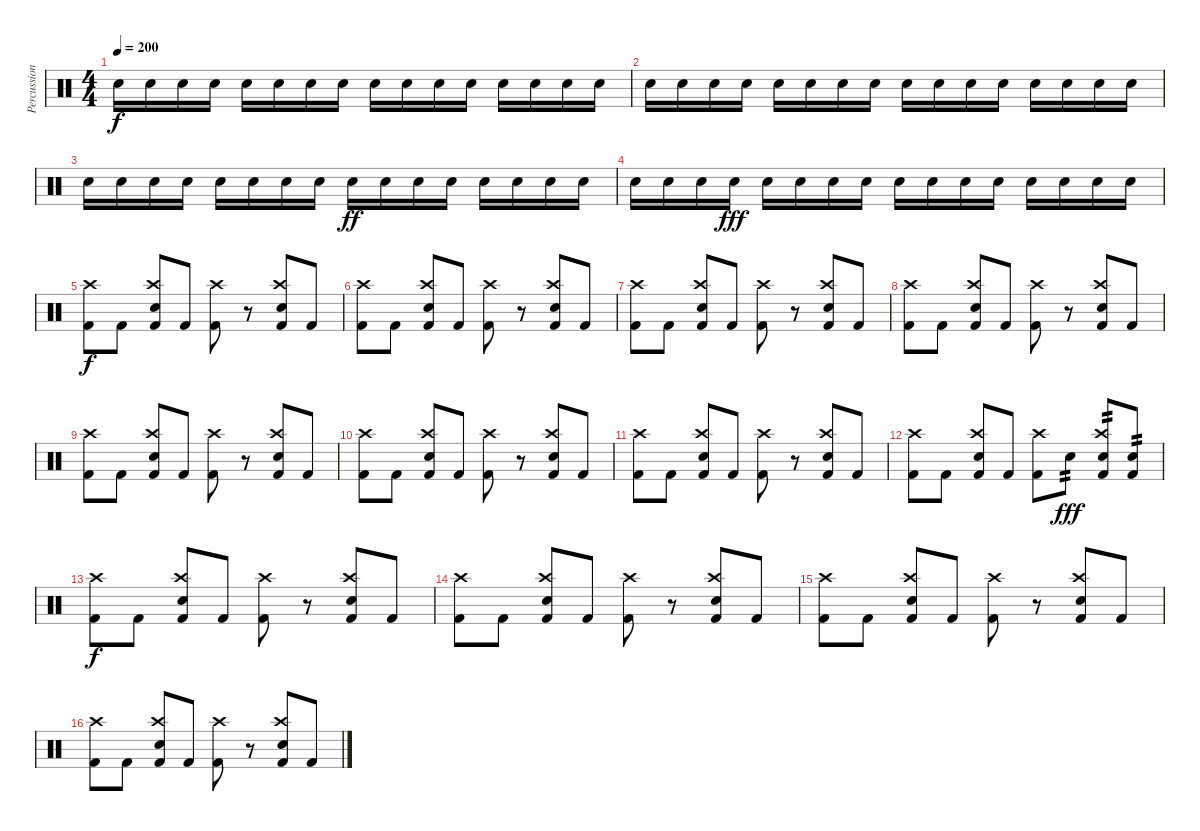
\track ("Percussion" "Percussion") {instrument percussion}
\staff {score}
\articulation defaults
\ts (4 4)
\tempo 200
\clef neutral
\ks c "Electric Snare (hit)".16{dy f} "Electric Snare (hit)".16 "Electric Snare (hit)".16 "Electric Snare (hit)".16 "Electric Snare (hit)".16 "Electric Snare (hit)".16 "Electric Snare (hit)".16 "Electric Snare (hit)".16 "Electric Snare (hit)".16 "Electric Snare (hit)".16 "Electric Snare (hit)".16 "Electric Snare (hit)".16 "Electric Snare (hit)".16 "Electric Snare (hit)".16 "Electric Snare (hit)".16 "Electric Snare (hit)".16
|
"Electric Snare (hit)".16 "Electric Snare (hit)".16 "Electric Snare (hit)".16 "Electric Snare (hit)".16 "Electric Snare (hit)".16 "Electric Snare (hit)".16 "Electric Snare (hit)".16 "Electric Snare (hit)".16 "Electric Snare (hit)".16 "Electric Snare (hit)".16 "Electric Snare (hit)".16 "Electric Snare (hit)".16 "Electric Snare (hit)".16 "Electric Snare (hit)".16 "Electric Snare (hit)".16 "Electric Snare (hit)".16 |
"Electric Snare (hit)".16 "Electric Snare (hit)".16 "Electric Snare (hit)".16 "Electric Snare (hit)".16 "Electric Snare (hit)".16 "Electric Snare (hit)".16 "Electric Snare (hit)".16 "Electric Snare (hit)".16 "Electric Snare (hit)".16{dy ff} "Electric Snare (hit)".16 "Electric Snare (hit)".16 "Electric Snare (hit)".16 "Electric Snare (hit)".16 "Electric Snare (hit)".16 "Electric Snare (hit)".16 "Electric Snare (hit)".16 |
"Electric Snare (hit)".16 "Electric Snare (hit)".16 "Electric Snare (hit)".16 "Electric Snare (hit)".16{dy fff} "Electric Snare (hit)".16 "Electric Snare (hit)".16 "Electric Snare (hit)".16 "Electric Snare (hit)".16 "Electric Snare (hit)".16 "Electric Snare (hit)".16 "Electric Snare (hit)".16 "Electric Snare (hit)".16 "Electric Snare (hit)".16 "Electric Snare (hit)".16 "Electric Snare (hit)".16 "Electric Snare (hit)".16 |
("Crash high (hit)" "Kick (hit) 2").8{dy f} "Kick (hit) 2".8 ("Crash high (hit)" "Electric Snare (hit)" "Kick (hit) 2").8 "Kick (hit) 2".8 ("Crash high (hit)" "Kick (hit) 2").8 r.8 ("Crash high (hit)" "Electric Snare (hit)" "Kick (hit) 2").8 "Kick (hit) 2".8 |
("Crash high (hit)" "Kick (hit) 2").8 "Kick (hit) 2".8 ("Crash high (hit)" "Electric Snare (hit)" "Kick (hit) 2").8 "Kick (hit) 2".8 ("Crash high (hit)" "Kick (hit) 2").8 r.8 ("Crash high (hit)" "Electric Snare (hit)" "Kick (hit) 2").8 "Kick (hit) 2".8 |
("Crash high (hit)" "Kick (hit) 2").8 "Kick (hit) 2".8 ("Crash high (hit)" "Electric Snare (hit)" "Kick (hit) 2").8 "Kick (hit) 2".8 ("Crash high (hit)" "Kick (hit) 2").8 r.8 ("Crash high (hit)" "Electric Snare (hit)" "Kick (hit) 2").8 "Kick (hit) 2".8 |
("Crash high (hit)" "Kick (hit) 2").8 "Kick (hit) 2".8 ("Crash high (hit)" "Electric Snare (hit)" "Kick (hit) 2").8 "Kick (hit) 2".8 ("Crash high (hit)" "Kick (hit) 2").8 r.8 ("Crash high (hit)" "Electric Snare (hit)" "Kick (hit) 2").8 "Kick (hit) 2".8 |
("Crash high (hit)" "Kick (hit) 2").8 "Kick (hit) 2".8 ("Crash high (hit)" "Electric Snare (hit)" "Kick (hit) 2").8 "Kick (hit) 2".8 ("Crash high (hit)" "Kick (hit) 2").8 r.8 ("Crash high (hit)" "Electric Snare (hit)" "Kick (hit) 2").8 "Kick (hit) 2".8 |
("Crash high (hit)" "Kick (hit) 2").8 "Kick (hit) 2".8 ("Crash high (hit)" "Electric Snare (hit)" "Kick (hit) 2").8 "Kick (hit) 2".8 ("Crash high (hit)" "Kick (hit) 2").8 r.8 ("Crash high (hit)" "Electric Snare (hit)" "Kick (hit) 2").8 "Kick (hit) 2".8 |
("Crash high (hit)" "Kick (hit) 2").8 "Kick (hit) 2".8 ("Crash high (hit)" "Electric Snare (hit)" "Kick (hit) 2").8 "Kick (hit) 2".8 ("Crash high (hit)" "Kick (hit) 2").8 r.8 ("Crash high (hit)" "Electric Snare (hit)" "Kick (hit) 2").8 "Kick (hit) 2".8 |
("Crash high (hit)" "Kick (hit) 2").8 "Kick (hit) 2".8 ("Crash high (hit)" "Electric Snare (hit)" "Kick (hit) 2").8 "Kick (hit) 2".8 ("Crash high (hit)" "Kick (hit) 2").8 "Electric Snare (hit)".8{tp 2 dy fff} ("Crash high (hit)" "Electric Snare (hit)" "Kick (hit) 2").8{tp 2} ("Electric Snare (hit)" "Kick (hit) 2").8{tp 2} |
("Crash high (hit)" "Kick (hit) 2").8{dy f} "Kick (hit) 2".8 ("Crash high (hit)" "Electric Snare (hit)" "Kick (hit) 2").8 "Kick (hit) 2".8 ("Crash high (hit)" "Kick (hit) 2").8 r.8 ("Crash high (hit)" "Electric Snare (hit)" "Kick (hit) 2").8 "Kick (hit) 2".8 |
("Crash high (hit)" "Kick (hit) 2").8 "Kick (hit) 2".8 ("Crash high (hit)" "Electric Snare (hit)" "Kick (hit) 2").8 "Kick (hit) 2".8 ("Crash high (hit)" "Kick (hit) 2").8 r.8 ("Crash high (hit)" "Electric Snare (hit)" "Kick (hit) 2").8 "Kick (hit) 2".8 |
("Crash high (hit)" "Kick (hit) 2").8 "Kick (hit) 2".8 ("Crash high (hit)" "Electric Snare (hit)" "Kick (hit) 2").8 "Kick (hit) 2".8 ("Crash high (hit)" "Kick (hit) 2").8 r.8 ("Crash high (hit)" "Electric Snare (hit)" "Kick (hit) 2").8 "Kick (hit) 2".8 |
("Crash high (hit)" "Kick (hit) 2").8 "Kick (hit) 2".8 ("Crash high (hit)" "Electric Snare (hit)" "Kick (hit) 2").8 "Kick (hit) 2".8 ("Crash high (hit)" "Kick (hit) 2").8 r.8 ("Crash high (hit)" "Electric Snare (hit)" "Kick (hit) 2").8 "Kick (hit) 2".8
